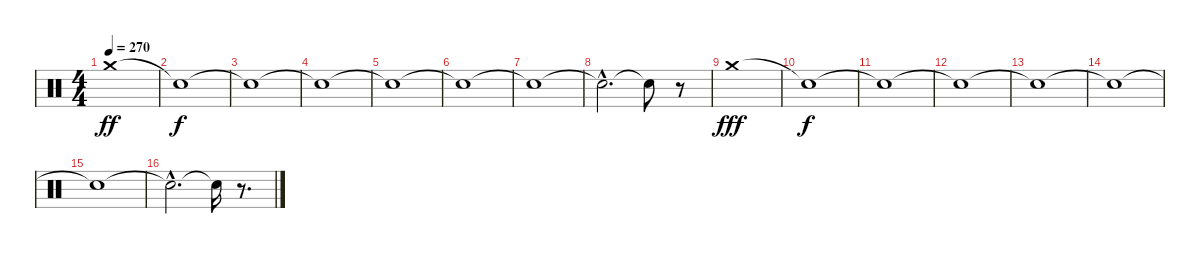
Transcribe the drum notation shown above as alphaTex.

\track "" {instrument percussion}
\staff {score}
\articulation defaults
\ts (4 4)
\tempo 270
\clef neutral
\ks c "Crash medium (hit)".1{dy ff}
|
"Snare (hit)"{t}.1{dy f} |
"Snare (hit)"{t}.1 |
"Snare (hit)"{t}.1 |
"Snare (hit)"{t}.1 |
"Snare (hit)"{t}.1 |
"Snare (hit)"{t}.1 |
"Snare (hit)"{hac t}.2{d} "Snare (hit)"{t}.8 r.8 |
"Crash medium (hit)".1{dy fff} |
"Snare (hit)"{t}.1{dy f} |
"Snare (hit)"{t}.1 |
"Snare (hit)"{t}.1 |
"Snare (hit)"{t}.1 |
"Snare (hit)"{t}.1 |
"Snare (hit)"{t}.1 |
"Snare (hit)"{hac t}.2{d} "Snare (hit)"{t}.16 r.8{d}
